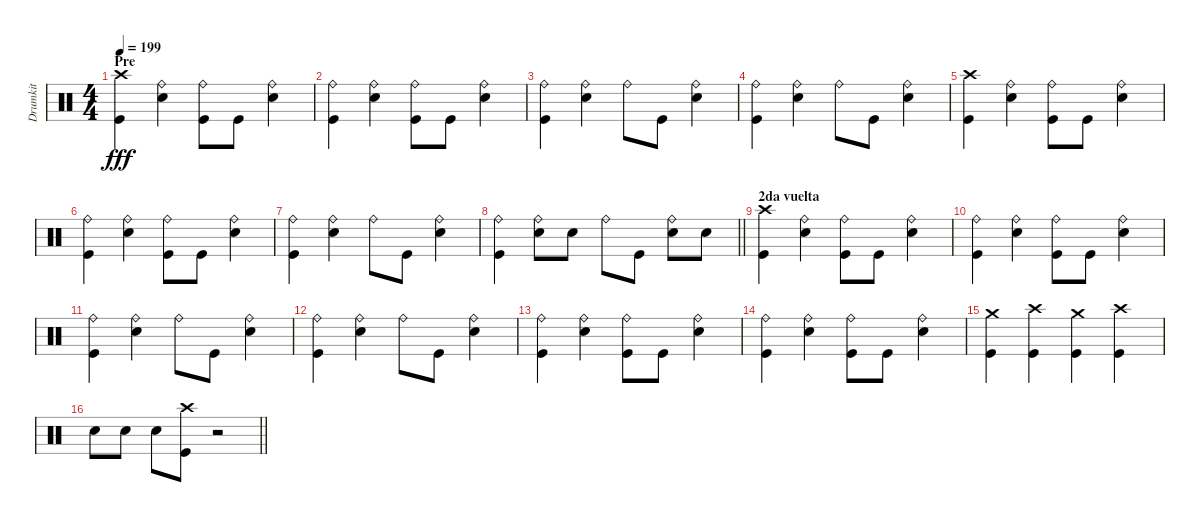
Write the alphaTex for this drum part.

\track ("Drumkit" "Drumkit") {instrument percussion}
\staff
\articulation defaults
\ts (4 4)
\section ("" "Pre")
\tempo 199
\clef neutral
\ks c
("Crash high (hit)" "Kick (hit)").4{dy fff} ("Snare (hit) 2" "Ride (bell)").4 ("Kick (hit)" "Ride (bell)").8 "Kick (hit)".8 ("Snare (hit) 2" "Ride (bell)").4 |
("Kick (hit)" "Ride (bell)").4 ("Snare (hit) 2" "Ride (bell)").4 ("Kick (hit)" "Ride (bell)").8 "Kick (hit)".8 ("Snare (hit) 2" "Ride (bell)").4 |
("Kick (hit)" "Ride (bell)").4 ("Snare (hit) 2" "Ride (bell)").4 "Ride (bell)".8 "Kick (hit)".8 ("Snare (hit) 2" "Ride (bell)").4 |
("Kick (hit)" "Ride (bell)").4 ("Snare (hit) 2" "Ride (bell)").4 "Ride (bell)".8 "Kick (hit)".8 ("Snare (hit) 2" "Ride (bell)").4 |
("Crash high (hit)" "Kick (hit)").4 ("Snare (hit) 2" "Ride (bell)").4 ("Kick (hit)" "Ride (bell)").8 "Kick (hit)".8 ("Snare (hit) 2" "Ride (bell)").4 |
("Kick (hit)" "Ride (bell)").4 ("Snare (hit) 2" "Ride (bell)").4 ("Kick (hit)" "Ride (bell)").8 "Kick (hit)".8 ("Snare (hit) 2" "Ride (bell)").4 |
("Kick (hit)" "Ride (bell)").4 ("Snare (hit) 2" "Ride (bell)").4 "Ride (bell)".8 "Kick (hit)".8 ("Snare (hit) 2" "Ride (bell)").4 |
\barLineRight lightlight
("Kick (hit)" "Ride (bell)").4 ("Snare (hit) 2" "Ride (bell)").8 "Snare (hit) 2".8 "Ride (bell)".8 "Kick (hit)".8 ("Snare (hit) 2" "Ride (bell)").8 "Snare (hit) 2".8 |
\section ("" "2da vuelta")
("Crash high (hit)" "Kick (hit)").4 ("Snare (hit) 2" "Ride (bell)").4 ("Kick (hit)" "Ride (bell)").8 "Kick (hit)".8 ("Snare (hit) 2" "Ride (bell)").4 |
("Kick (hit)" "Ride (bell)").4 ("Snare (hit) 2" "Ride (bell)").4 ("Kick (hit)" "Ride (bell)").8 "Kick (hit)".8 ("Snare (hit) 2" "Ride (bell)").4 |
("Kick (hit)" "Ride (bell)").4 ("Snare (hit) 2" "Ride (bell)").4 "Ride (bell)".8 "Kick (hit)".8 ("Snare (hit) 2" "Ride (bell)").4 |
("Kick (hit)" "Ride (bell)").4 ("Snare (hit) 2" "Ride (bell)").4 "Ride (bell)".8 "Kick (hit)".8 ("Snare (hit) 2" "Ride (bell)").4 |
("Kick (hit)" "Ride (bell)").4 ("Snare (hit) 2" "Ride (bell)").4 ("Kick (hit)" "Ride (bell)").8 "Kick (hit)".8 ("Snare (hit) 2" "Ride (bell)").4 |
("Kick (hit)" "Ride (bell)").4 ("Snare (hit) 2" "Ride (bell)").4 ("Kick (hit)" "Ride (bell)").8 "Kick (hit)".8 ("Snare (hit) 2" "Ride (bell)").4 |
("Crash medium (hit)" "Kick (hit)").4 ("Crash high (hit)" "Kick (hit)").4 ("Crash medium (hit)" "Kick (hit)").4 ("Crash high (hit)" "Kick (hit)").4 |
\barLineRight lightlight "Snare (hit) 2".8 "Snare (hit) 2".8 "Snare (hit) 2".8
("Crash high (hit)" "Kick (hit)").8 r.2
